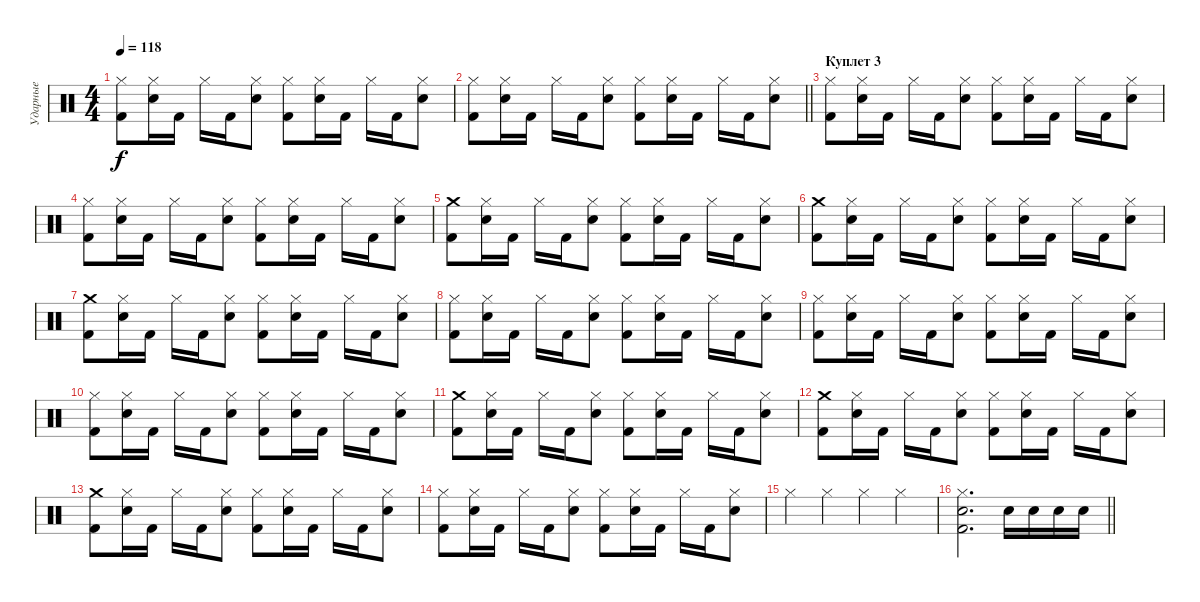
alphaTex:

\track ("Ударные" "Ударные") {instrument percussion}
\staff {score}
\articulation defaults
\ts (4 4)
\tempo 118
\clef neutral
\ks c
("Hi-Hat (closed)" "Kick (hit) 2").8{dy f} ("Hi-Hat (closed)" "Snare (hit) 2").16 "Kick (hit) 2".16 "Hi-Hat (closed)".16 "Kick (hit) 2".16 ("Hi-Hat (closed)" "Snare (hit) 2").8 ("Hi-Hat (closed)" "Kick (hit) 2").8 ("Hi-Hat (closed)" "Snare (hit) 2").16 "Kick (hit) 2".16 "Hi-Hat (closed)".16 "Kick (hit) 2".16 ("Hi-Hat (closed)" "Snare (hit) 2").8 |
\barLineRight lightlight
("Hi-Hat (closed)" "Kick (hit) 2").8 ("Hi-Hat (closed)" "Snare (hit) 2").16 "Kick (hit) 2".16 "Hi-Hat (closed)".16 "Kick (hit) 2".16 ("Hi-Hat (closed)" "Snare (hit) 2").8 ("Hi-Hat (closed)" "Kick (hit) 2").8 ("Hi-Hat (closed)" "Snare (hit) 2").16 "Kick (hit) 2".16 "Hi-Hat (closed)".16 "Kick (hit) 2".16 ("Hi-Hat (closed)" "Snare (hit) 2").8 |
\section ("" "Куплет 3")
("Hi-Hat (closed)" "Kick (hit) 2").8 ("Hi-Hat (closed)" "Snare (hit) 2").16 "Kick (hit) 2".16 "Hi-Hat (closed)".16 "Kick (hit) 2".16 ("Hi-Hat (closed)" "Snare (hit) 2").8 ("Hi-Hat (closed)" "Kick (hit) 2").8 ("Hi-Hat (closed)" "Snare (hit) 2").16 "Kick (hit) 2".16 "Hi-Hat (closed)".16 "Kick (hit) 2".16 ("Hi-Hat (closed)" "Snare (hit) 2").8 |
("Hi-Hat (closed)" "Kick (hit) 2").8 ("Hi-Hat (closed)" "Snare (hit) 2").16 "Kick (hit) 2".16 "Hi-Hat (closed)".16 "Kick (hit) 2".16 ("Hi-Hat (closed)" "Snare (hit) 2").8 ("Hi-Hat (closed)" "Kick (hit) 2").8 ("Hi-Hat (closed)" "Snare (hit) 2").16 "Kick (hit) 2".16 "Hi-Hat (closed)".16 "Kick (hit) 2".16 ("Hi-Hat (closed)" "Snare (hit) 2").8 |
("Crash medium (hit)" "Kick (hit) 2").8 ("Hi-Hat (closed)" "Snare (hit) 2").16 "Kick (hit) 2".16 "Hi-Hat (closed)".16 "Kick (hit) 2".16 ("Hi-Hat (closed)" "Snare (hit) 2").8 ("Hi-Hat (closed)" "Kick (hit) 2").8 ("Hi-Hat (closed)" "Snare (hit) 2").16 "Kick (hit) 2".16 "Hi-Hat (closed)".16 "Kick (hit) 2".16 ("Hi-Hat (closed)" "Snare (hit) 2").8 |
("Crash medium (hit)" "Kick (hit) 2").8 ("Hi-Hat (closed)" "Snare (hit) 2").16 "Kick (hit) 2".16 "Hi-Hat (closed)".16 "Kick (hit) 2".16 ("Hi-Hat (closed)" "Snare (hit) 2").8 ("Hi-Hat (closed)" "Kick (hit) 2").8 ("Hi-Hat (closed)" "Snare (hit) 2").16 "Kick (hit) 2".16 "Hi-Hat (closed)".16 "Kick (hit) 2".16 ("Hi-Hat (closed)" "Snare (hit) 2").8 |
("Crash medium (hit)" "Kick (hit) 2").8 ("Hi-Hat (closed)" "Snare (hit) 2").16 "Kick (hit) 2".16 "Hi-Hat (closed)".16 "Kick (hit) 2".16 ("Hi-Hat (closed)" "Snare (hit) 2").8 ("Hi-Hat (closed)" "Kick (hit) 2").8 ("Hi-Hat (closed)" "Snare (hit) 2").16 "Kick (hit) 2".16 "Hi-Hat (closed)".16 "Kick (hit) 2".16 ("Hi-Hat (closed)" "Snare (hit) 2").8 |
("Hi-Hat (closed)" "Kick (hit) 2").8 ("Hi-Hat (closed)" "Snare (hit) 2").16 "Kick (hit) 2".16 "Hi-Hat (closed)".16 "Kick (hit) 2".16 ("Hi-Hat (closed)" "Snare (hit) 2").8 ("Hi-Hat (closed)" "Kick (hit) 2").8 ("Hi-Hat (closed)" "Snare (hit) 2").16 "Kick (hit) 2".16 "Hi-Hat (closed)".16 "Kick (hit) 2".16 ("Hi-Hat (closed)" "Snare (hit) 2").8 |
("Hi-Hat (closed)" "Kick (hit) 2").8 ("Hi-Hat (closed)" "Snare (hit) 2").16 "Kick (hit) 2".16 "Hi-Hat (closed)".16 "Kick (hit) 2".16 ("Hi-Hat (closed)" "Snare (hit) 2").8 ("Hi-Hat (closed)" "Kick (hit) 2").8 ("Hi-Hat (closed)" "Snare (hit) 2").16 "Kick (hit) 2".16 "Hi-Hat (closed)".16 "Kick (hit) 2".16 ("Hi-Hat (closed)" "Snare (hit) 2").8 |
("Hi-Hat (closed)" "Kick (hit) 2").8 ("Hi-Hat (closed)" "Snare (hit) 2").16 "Kick (hit) 2".16 "Hi-Hat (closed)".16 "Kick (hit) 2".16 ("Hi-Hat (closed)" "Snare (hit) 2").8 ("Hi-Hat (closed)" "Kick (hit) 2").8 ("Hi-Hat (closed)" "Snare (hit) 2").16 "Kick (hit) 2".16 "Hi-Hat (closed)".16 "Kick (hit) 2".16 ("Hi-Hat (closed)" "Snare (hit) 2").8 |
("Crash medium (hit)" "Kick (hit) 2").8 ("Hi-Hat (closed)" "Snare (hit) 2").16 "Kick (hit) 2".16 "Hi-Hat (closed)".16 "Kick (hit) 2".16 ("Hi-Hat (closed)" "Snare (hit) 2").8 ("Hi-Hat (closed)" "Kick (hit) 2").8 ("Hi-Hat (closed)" "Snare (hit) 2").16 "Kick (hit) 2".16 "Hi-Hat (closed)".16 "Kick (hit) 2".16 ("Hi-Hat (closed)" "Snare (hit) 2").8 |
("Crash medium (hit)" "Kick (hit) 2").8 ("Hi-Hat (closed)" "Snare (hit) 2").16 "Kick (hit) 2".16 "Hi-Hat (closed)".16 "Kick (hit) 2".16 ("Hi-Hat (closed)" "Snare (hit) 2").8 ("Hi-Hat (closed)" "Kick (hit) 2").8 ("Hi-Hat (closed)" "Snare (hit) 2").16 "Kick (hit) 2".16 "Hi-Hat (closed)".16 "Kick (hit) 2".16 ("Hi-Hat (closed)" "Snare (hit) 2").8 |
("Crash medium (hit)" "Kick (hit) 2").8 ("Hi-Hat (closed)" "Snare (hit) 2").16 "Kick (hit) 2".16 "Hi-Hat (closed)".16 "Kick (hit) 2".16 ("Hi-Hat (closed)" "Snare (hit) 2").8 ("Hi-Hat (closed)" "Kick (hit) 2").8 ("Hi-Hat (closed)" "Snare (hit) 2").16 "Kick (hit) 2".16 "Hi-Hat (closed)".16 "Kick (hit) 2".16 ("Hi-Hat (closed)" "Snare (hit) 2").8 |
("Hi-Hat (closed)" "Kick (hit) 2").8 ("Hi-Hat (closed)" "Snare (hit) 2").16 "Kick (hit) 2".16 "Hi-Hat (closed)".16 "Kick (hit) 2".16 ("Hi-Hat (closed)" "Snare (hit) 2").8 ("Hi-Hat (closed)" "Kick (hit) 2").8 ("Hi-Hat (closed)" "Snare (hit) 2").16 "Kick (hit) 2".16 "Hi-Hat (closed)".16 "Kick (hit) 2".16 ("Hi-Hat (closed)" "Snare (hit) 2").8 |
"Hi-Hat (closed)".4 "Hi-Hat (closed)".4 "Hi-Hat (closed)".4 "Hi-Hat (closed)".4 |
\barLineRight lightlight
("Hi-Hat (closed)" "Kick (hit) 2" "Snare (hit) 2").2{d} "Electric Snare (hit)".16 "Electric Snare (hit)".16 "Electric Snare (hit)".16 "Electric Snare (hit)".16
